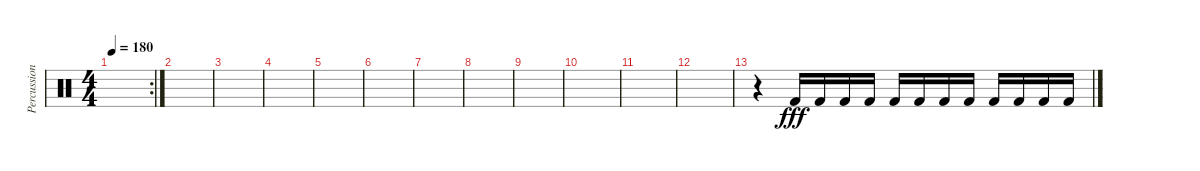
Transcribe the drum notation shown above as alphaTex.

\track ("Percussion (Francisco Izquierdo)" "Percussion") {instrument percussion}
\staff {score}
\articulation defaults
\rc 2
\ts (4 4)
\tempo 180
\clef neutral
\ks c
|
|
|
|
|
|
|
|
|
|
|
|
r.4 "Kick (hit) 2".16{dy fff} "Kick (hit) 2".16 "Kick (hit) 2".16 "Kick (hit) 2".16 "Kick (hit) 2".16 "Kick (hit) 2".16 "Kick (hit) 2".16 "Kick (hit) 2".16 "Kick (hit) 2".16 "Kick (hit) 2".16 "Kick (hit) 2".16 "Kick (hit) 2".16
